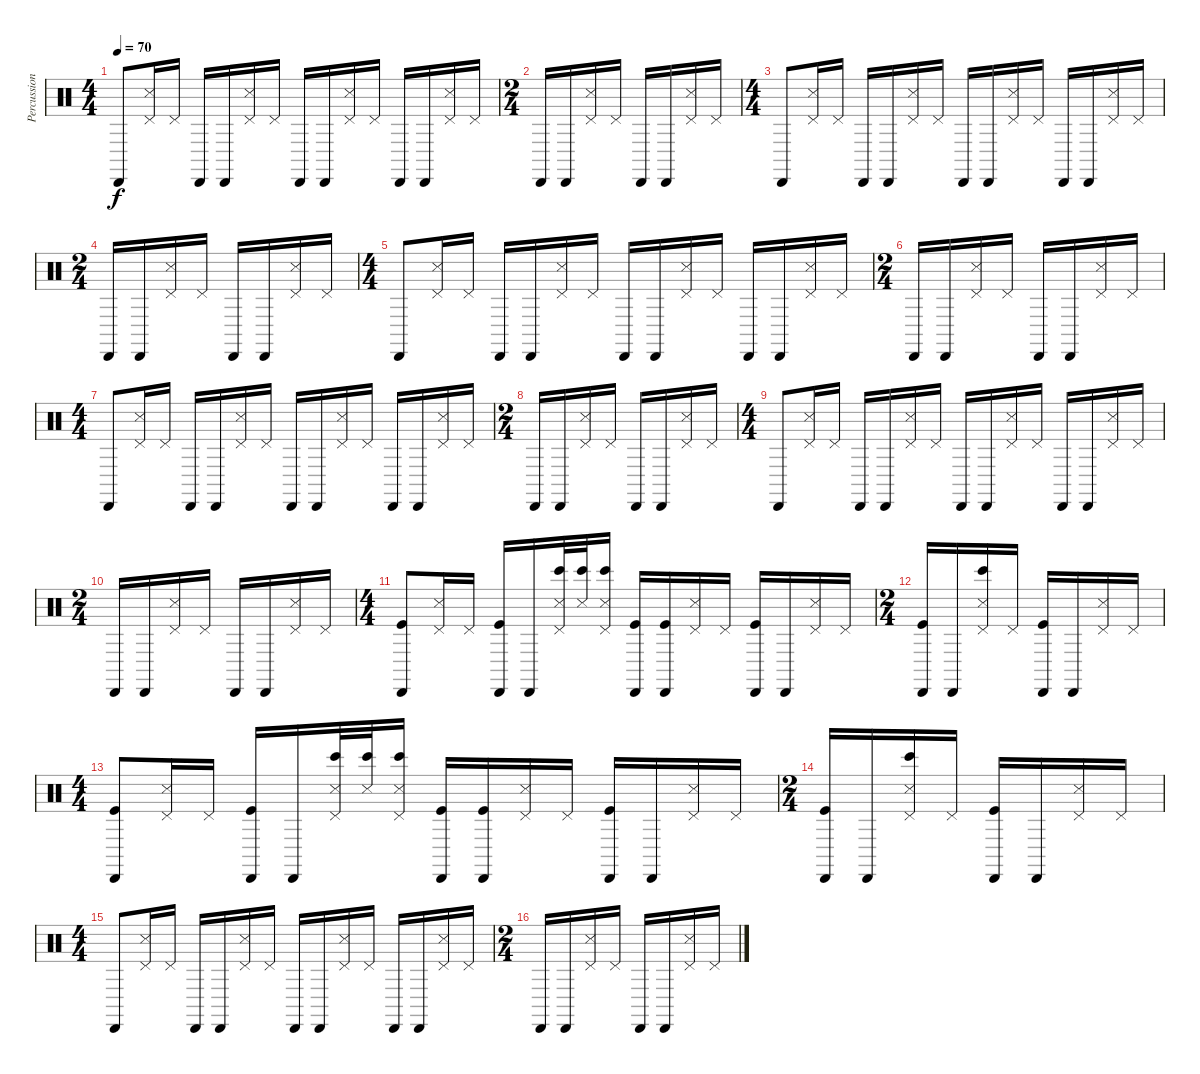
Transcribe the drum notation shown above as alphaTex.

\track ("Percussions" "Percussion") {instrument percussion}
\staff {score}
\articulation defaults
\ts (4 4)
\tempo 70
\clef neutral
\ks c "Cabasa (hit)".8{dy f}
("Pedal Hi-Hat (hit)" "Snare (side stick) 3").16 "Pedal Hi-Hat (hit)".16 "Cabasa (hit)".16 "Cabasa (hit)".16 ("Pedal Hi-Hat (hit)" "Snare (side stick) 3").16 "Pedal Hi-Hat (hit)".16 "Cabasa (hit)".16 "Cabasa (hit)".16 ("Pedal Hi-Hat (hit)" "Snare (side stick) 3").16 "Pedal Hi-Hat (hit)".16 "Cabasa (hit)".16 "Cabasa (hit)".16 ("Pedal Hi-Hat (hit)" "Snare (side stick) 3").16 "Pedal Hi-Hat (hit)".16 |
\ts (2 4)
"Cabasa (hit)".16 "Cabasa (hit)".16 ("Pedal Hi-Hat (hit)" "Snare (side stick) 3").16 "Pedal Hi-Hat (hit)".16 "Cabasa (hit)".16 "Cabasa (hit)".16 ("Pedal Hi-Hat (hit)" "Snare (side stick) 3").16 "Pedal Hi-Hat (hit)".16 |
\ts (4 4)
"Cabasa (hit)".8 ("Pedal Hi-Hat (hit)" "Snare (side stick) 3").16 "Pedal Hi-Hat (hit)".16 "Cabasa (hit)".16 "Cabasa (hit)".16 ("Pedal Hi-Hat (hit)" "Snare (side stick) 3").16 "Pedal Hi-Hat (hit)".16 "Cabasa (hit)".16 "Cabasa (hit)".16 ("Pedal Hi-Hat (hit)" "Snare (side stick) 3").16 "Pedal Hi-Hat (hit)".16 "Cabasa (hit)".16 "Cabasa (hit)".16 ("Pedal Hi-Hat (hit)" "Snare (side stick) 3").16 "Pedal Hi-Hat (hit)".16 |
\ts (2 4)
"Cabasa (hit)".16 "Cabasa (hit)".16 ("Pedal Hi-Hat (hit)" "Snare (side stick) 3").16 "Pedal Hi-Hat (hit)".16 "Cabasa (hit)".16 "Cabasa (hit)".16 ("Pedal Hi-Hat (hit)" "Snare (side stick) 3").16 "Pedal Hi-Hat (hit)".16 |
\ts (4 4)
"Cabasa (hit)".8 ("Pedal Hi-Hat (hit)" "Snare (side stick) 3").16 "Pedal Hi-Hat (hit)".16 "Cabasa (hit)".16 "Cabasa (hit)".16 ("Pedal Hi-Hat (hit)" "Snare (side stick) 3").16 "Pedal Hi-Hat (hit)".16 "Cabasa (hit)".16 "Cabasa (hit)".16 ("Pedal Hi-Hat (hit)" "Snare (side stick) 3").16 "Pedal Hi-Hat (hit)".16 "Cabasa (hit)".16 "Cabasa (hit)".16 ("Pedal Hi-Hat (hit)" "Snare (side stick) 3").16 "Pedal Hi-Hat (hit)".16 |
\ts (2 4)
"Cabasa (hit)".16 "Cabasa (hit)".16 ("Pedal Hi-Hat (hit)" "Snare (side stick) 3").16 "Pedal Hi-Hat (hit)".16 "Cabasa (hit)".16 "Cabasa (hit)".16 ("Pedal Hi-Hat (hit)" "Snare (side stick) 3").16 "Pedal Hi-Hat (hit)".16 |
\ts (4 4)
"Cabasa (hit)".8 ("Pedal Hi-Hat (hit)" "Snare (side stick) 3").16 "Pedal Hi-Hat (hit)".16 "Cabasa (hit)".16 "Cabasa (hit)".16 ("Pedal Hi-Hat (hit)" "Snare (side stick) 3").16 "Pedal Hi-Hat (hit)".16 "Cabasa (hit)".16 "Cabasa (hit)".16 ("Pedal Hi-Hat (hit)" "Snare (side stick) 3").16 "Pedal Hi-Hat (hit)".16 "Cabasa (hit)".16 "Cabasa (hit)".16 ("Pedal Hi-Hat (hit)" "Snare (side stick) 3").16 "Pedal Hi-Hat (hit)".16 |
\ts (2 4)
"Cabasa (hit)".16 "Cabasa (hit)".16 ("Pedal Hi-Hat (hit)" "Snare (side stick) 3").16 "Pedal Hi-Hat (hit)".16 "Cabasa (hit)".16 "Cabasa (hit)".16 ("Pedal Hi-Hat (hit)" "Snare (side stick) 3").16 "Pedal Hi-Hat (hit)".16 |
\ts (4 4)
"Cabasa (hit)".8 ("Pedal Hi-Hat (hit)" "Snare (side stick) 3").16 "Pedal Hi-Hat (hit)".16 "Cabasa (hit)".16 "Cabasa (hit)".16 ("Pedal Hi-Hat (hit)" "Snare (side stick) 3").16 "Pedal Hi-Hat (hit)".16 "Cabasa (hit)".16 "Cabasa (hit)".16 ("Pedal Hi-Hat (hit)" "Snare (side stick) 3").16 "Pedal Hi-Hat (hit)".16 "Cabasa (hit)".16 "Cabasa (hit)".16 ("Pedal Hi-Hat (hit)" "Snare (side stick) 3").16 "Pedal Hi-Hat (hit)".16 |
\ts (2 4)
"Cabasa (hit)".16 "Cabasa (hit)".16 ("Pedal Hi-Hat (hit)" "Snare (side stick) 3").16 "Pedal Hi-Hat (hit)".16 "Cabasa (hit)".16 "Cabasa (hit)".16 ("Pedal Hi-Hat (hit)" "Snare (side stick) 3").16 "Pedal Hi-Hat (hit)".16 |
\ts (4 4)
("Cabasa (hit)" "Kick (hit)").8 ("Pedal Hi-Hat (hit)" "Snare (side stick) 3").16 "Pedal Hi-Hat (hit)".16 ("Cabasa (hit)" "Kick (hit)").16 "Cabasa (hit)".16 ("Pedal Hi-Hat (hit)" "Snare (side stick) 3" "Bongo High (hit)").32 ("Snare (side stick) 3" "Bongo High (hit)").32 ("Pedal Hi-Hat (hit)" "Snare (side stick) 3" "Bongo High (hit)").16 ("Cabasa (hit)" "Kick (hit)").16 ("Cabasa (hit)" "Kick (hit)").16 ("Pedal Hi-Hat (hit)" "Snare (side stick) 3").16 "Pedal Hi-Hat (hit)".16 ("Cabasa (hit)" "Kick (hit)").16 "Cabasa (hit)".16 ("Pedal Hi-Hat (hit)" "Snare (side stick) 3").16 "Pedal Hi-Hat (hit)".16 |
\ts (2 4)
("Cabasa (hit)" "Kick (hit)").16 "Cabasa (hit)".16 ("Pedal Hi-Hat (hit)" "Snare (side stick) 3" "Bongo High (hit)").16 "Pedal Hi-Hat (hit)".16 ("Cabasa (hit)" "Kick (hit)").16 "Cabasa (hit)".16 ("Pedal Hi-Hat (hit)" "Snare (side stick) 3").16 "Pedal Hi-Hat (hit)".16 |
\ts (4 4)
("Cabasa (hit)" "Kick (hit)").8 ("Pedal Hi-Hat (hit)" "Snare (side stick) 3").16 "Pedal Hi-Hat (hit)".16 ("Cabasa (hit)" "Kick (hit)").16 "Cabasa (hit)".16 ("Pedal Hi-Hat (hit)" "Snare (side stick) 3" "Bongo High (hit)").32 ("Snare (side stick) 3" "Bongo High (hit)").32 ("Pedal Hi-Hat (hit)" "Snare (side stick) 3" "Bongo High (hit)").16 ("Cabasa (hit)" "Kick (hit)").16 ("Cabasa (hit)" "Kick (hit)").16 ("Pedal Hi-Hat (hit)" "Snare (side stick) 3").16 "Pedal Hi-Hat (hit)".16 ("Cabasa (hit)" "Kick (hit)").16 "Cabasa (hit)".16 ("Pedal Hi-Hat (hit)" "Snare (side stick) 3").16 "Pedal Hi-Hat (hit)".16 |
\ts (2 4)
("Cabasa (hit)" "Kick (hit)").16 "Cabasa (hit)".16 ("Pedal Hi-Hat (hit)" "Snare (side stick) 3" "Bongo High (hit)").16 "Pedal Hi-Hat (hit)".16 ("Cabasa (hit)" "Kick (hit)").16 "Cabasa (hit)".16 ("Pedal Hi-Hat (hit)" "Snare (side stick) 3").16 "Pedal Hi-Hat (hit)".16 |
\ts (4 4)
"Cabasa (hit)".8 ("Pedal Hi-Hat (hit)" "Snare (side stick) 3").16 "Pedal Hi-Hat (hit)".16 "Cabasa (hit)".16 "Cabasa (hit)".16 ("Pedal Hi-Hat (hit)" "Snare (side stick) 3").16 "Pedal Hi-Hat (hit)".16 "Cabasa (hit)".16 "Cabasa (hit)".16 ("Pedal Hi-Hat (hit)" "Snare (side stick) 3").16 "Pedal Hi-Hat (hit)".16 "Cabasa (hit)".16 "Cabasa (hit)".16 ("Pedal Hi-Hat (hit)" "Snare (side stick) 3").16 "Pedal Hi-Hat (hit)".16 |
\ts (2 4)
"Cabasa (hit)".16 "Cabasa (hit)".16 ("Pedal Hi-Hat (hit)" "Snare (side stick) 3").16 "Pedal Hi-Hat (hit)".16 "Cabasa (hit)".16 "Cabasa (hit)".16 ("Pedal Hi-Hat (hit)" "Snare (side stick) 3").16 "Pedal Hi-Hat (hit)".16
